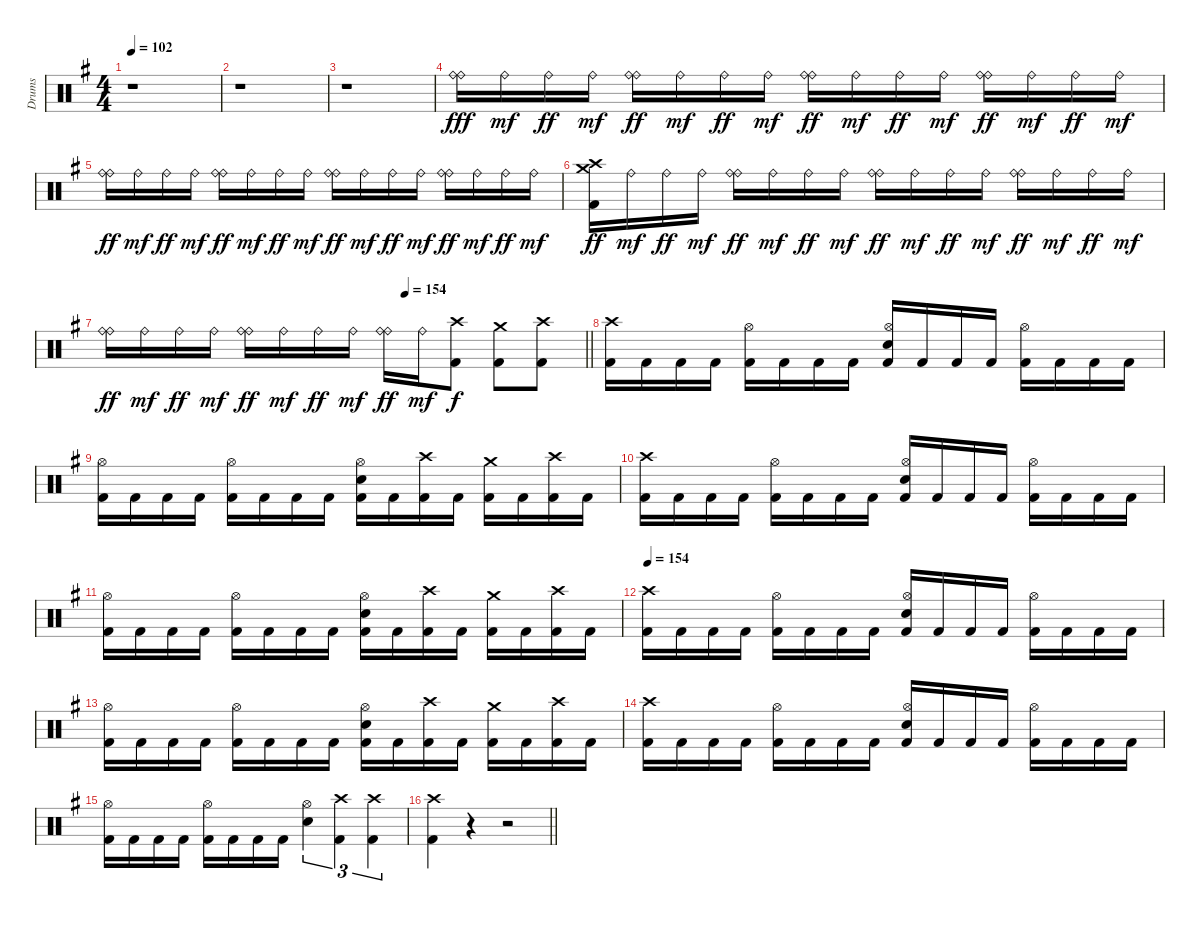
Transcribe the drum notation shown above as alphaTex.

\track ("Drums" "Drums") {instrument percussion}
\staff {score}
\articulation defaults
\ts (4 4)
\tempo 102
\clef neutral
\ks eminor
r.1{dy fff} |
r.1 |
r.1 |
("Ride (bell)" "Ride (bell)").16 "Ride (bell)".16{dy mf} "Ride (bell)".16{dy ff} "Ride (bell)".16{dy mf} ("Ride (bell)" "Ride (bell)").16{dy ff} "Ride (bell)".16{dy mf} "Ride (bell)".16{dy ff} "Ride (bell)".16{dy mf} ("Ride (bell)" "Ride (bell)").16{dy ff} "Ride (bell)".16{dy mf} "Ride (bell)".16{dy ff} "Ride (bell)".16{dy mf} ("Ride (bell)" "Ride (bell)").16{dy ff} "Ride (bell)".16{dy mf} "Ride (bell)".16{dy ff} "Ride (bell)".16{dy mf} |
("Ride (bell)" "Ride (bell)").16{dy ff} "Ride (bell)".16{dy mf} "Ride (bell)".16{dy ff} "Ride (bell)".16{dy mf} ("Ride (bell)" "Ride (bell)").16{dy ff} "Ride (bell)".16{dy mf} "Ride (bell)".16{dy ff} "Ride (bell)".16{dy mf} ("Ride (bell)" "Ride (bell)").16{dy ff} "Ride (bell)".16{dy mf} "Ride (bell)".16{dy ff} "Ride (bell)".16{dy mf} ("Ride (bell)" "Ride (bell)").16{dy ff} "Ride (bell)".16{dy mf} "Ride (bell)".16{dy ff} "Ride (bell)".16{dy mf} |
("Crash high (hit)" "Crash medium (hit)" "Kick (hit) 2").16{dy ff} "Ride (bell)".16{dy mf} "Ride (bell)".16{dy ff} "Ride (bell)".16{dy mf} ("Ride (bell)" "Ride (bell)").16{dy ff} "Ride (bell)".16{dy mf} "Ride (bell)".16{dy ff} "Ride (bell)".16{dy mf} ("Ride (bell)" "Ride (bell)").16{dy ff} "Ride (bell)".16{dy mf} "Ride (bell)".16{dy ff} "Ride (bell)".16{dy mf} ("Ride (bell)" "Ride (bell)").16{dy ff} "Ride (bell)".16{dy mf} "Ride (bell)".16{dy ff} "Ride (bell)".16{dy mf} |
\tempo (154 0.625)
\barLineRight lightlight
("Ride (bell)" "Ride (bell)").16{dy ff} "Ride (bell)".16{dy mf} "Ride (bell)".16{dy ff} "Ride (bell)".16{dy mf} ("Ride (bell)" "Ride (bell)").16{dy ff} "Ride (bell)".16{dy mf} "Ride (bell)".16{dy ff} "Ride (bell)".16{dy mf} ("Ride (bell)" "Ride (bell)").16{dy ff} "Ride (bell)".16{dy mf} ("Crash high (hit)" "Kick (hit) 2").8{dy f} ("Crash medium (hit)" "Kick (hit) 2").8 ("Crash high (hit)" "Kick (hit) 2").8 |
("Crash high (hit)" "Kick (hit) 2").16 "Kick (hit) 2".16 "Kick (hit) 2".16 "Kick (hit) 2".16 ("Hi-Hat (open)" "Kick (hit) 2").16 "Kick (hit) 2".16 "Kick (hit) 2".16 "Kick (hit) 2".16 ("Hi-Hat (open)" "Snare (hit) 2" "Kick (hit) 2").16 "Kick (hit) 2".16 "Kick (hit) 2".16 "Kick (hit) 2".16 ("Hi-Hat (open)" "Kick (hit) 2").16 "Kick (hit) 2".16 "Kick (hit) 2".16 "Kick (hit) 2".16 |
("Hi-Hat (open)" "Kick (hit) 2").16 "Kick (hit) 2".16 "Kick (hit) 2".16 "Kick (hit) 2".16 ("Hi-Hat (open)" "Kick (hit) 2").16 "Kick (hit) 2".16 "Kick (hit) 2".16 "Kick (hit) 2".16 ("Hi-Hat (open)" "Snare (hit) 2" "Kick (hit) 2").16 "Kick (hit) 2".16 ("Crash high (hit)" "Kick (hit) 2").16 "Kick (hit) 2".16 ("Crash medium (hit)" "Kick (hit) 2").16 "Kick (hit) 2".16 ("Crash high (hit)" "Kick (hit) 2").16 "Kick (hit) 2".16 |
("Crash high (hit)" "Kick (hit) 2").16 "Kick (hit) 2".16 "Kick (hit) 2".16 "Kick (hit) 2".16 ("Hi-Hat (open)" "Kick (hit) 2").16 "Kick (hit) 2".16 "Kick (hit) 2".16 "Kick (hit) 2".16 ("Hi-Hat (open)" "Snare (hit) 2" "Kick (hit) 2").16 "Kick (hit) 2".16 "Kick (hit) 2".16 "Kick (hit) 2".16 ("Hi-Hat (open)" "Kick (hit) 2").16 "Kick (hit) 2".16 "Kick (hit) 2".16 "Kick (hit) 2".16 |
("Hi-Hat (open)" "Kick (hit) 2").16 "Kick (hit) 2".16 "Kick (hit) 2".16 "Kick (hit) 2".16 ("Hi-Hat (open)" "Kick (hit) 2").16 "Kick (hit) 2".16 "Kick (hit) 2".16 "Kick (hit) 2".16 ("Hi-Hat (open)" "Snare (hit) 2" "Kick (hit) 2").16 "Kick (hit) 2".16 ("Crash high (hit)" "Kick (hit) 2").16 "Kick (hit) 2".16 ("Crash medium (hit)" "Kick (hit) 2").16 "Kick (hit) 2".16 ("Crash high (hit)" "Kick (hit) 2").16 "Kick (hit) 2".16 |
\tempo 154
("Crash high (hit)" "Kick (hit) 2").16 "Kick (hit) 2".16 "Kick (hit) 2".16 "Kick (hit) 2".16 ("Hi-Hat (open)" "Kick (hit) 2").16 "Kick (hit) 2".16 "Kick (hit) 2".16 "Kick (hit) 2".16 ("Hi-Hat (open)" "Snare (hit) 2" "Kick (hit) 2").16 "Kick (hit) 2".16 "Kick (hit) 2".16 "Kick (hit) 2".16 ("Hi-Hat (open)" "Kick (hit) 2").16 "Kick (hit) 2".16 "Kick (hit) 2".16 "Kick (hit) 2".16 |
("Hi-Hat (open)" "Kick (hit) 2").16 "Kick (hit) 2".16 "Kick (hit) 2".16 "Kick (hit) 2".16 ("Hi-Hat (open)" "Kick (hit) 2").16 "Kick (hit) 2".16 "Kick (hit) 2".16 "Kick (hit) 2".16 ("Hi-Hat (open)" "Snare (hit) 2" "Kick (hit) 2").16 "Kick (hit) 2".16 ("Crash high (hit)" "Kick (hit) 2").16 "Kick (hit) 2".16 ("Crash medium (hit)" "Kick (hit) 2").16 "Kick (hit) 2".16 ("Crash high (hit)" "Kick (hit) 2").16 "Kick (hit) 2".16 |
("Crash high (hit)" "Kick (hit) 2").16 "Kick (hit) 2".16 "Kick (hit) 2".16 "Kick (hit) 2".16 ("Hi-Hat (open)" "Kick (hit) 2").16 "Kick (hit) 2".16 "Kick (hit) 2".16 "Kick (hit) 2".16 ("Hi-Hat (open)" "Snare (hit) 2" "Kick (hit) 2").16 "Kick (hit) 2".16 "Kick (hit) 2".16 "Kick (hit) 2".16 ("Hi-Hat (open)" "Kick (hit) 2").16 "Kick (hit) 2".16 "Kick (hit) 2".16 "Kick (hit) 2".16 |
("Hi-Hat (open)" "Kick (hit) 2").16 "Kick (hit) 2".16 "Kick (hit) 2".16 "Kick (hit) 2".16 ("Hi-Hat (open)" "Kick (hit) 2").16 "Kick (hit) 2".16 "Kick (hit) 2".16 "Kick (hit) 2".16 ("Hi-Hat (open)" "Snare (hit) 2").4{tu (3 2)} ("Crash high (hit)" "Kick (hit) 2").4{tu (3 2)} ("Crash high (hit)" "Kick (hit) 2").4{tu (3 2)} |
\barLineRight lightlight
("Crash high (hit)" "Kick (hit) 2").4 r.4{volume 0} r.2{volume 16}
